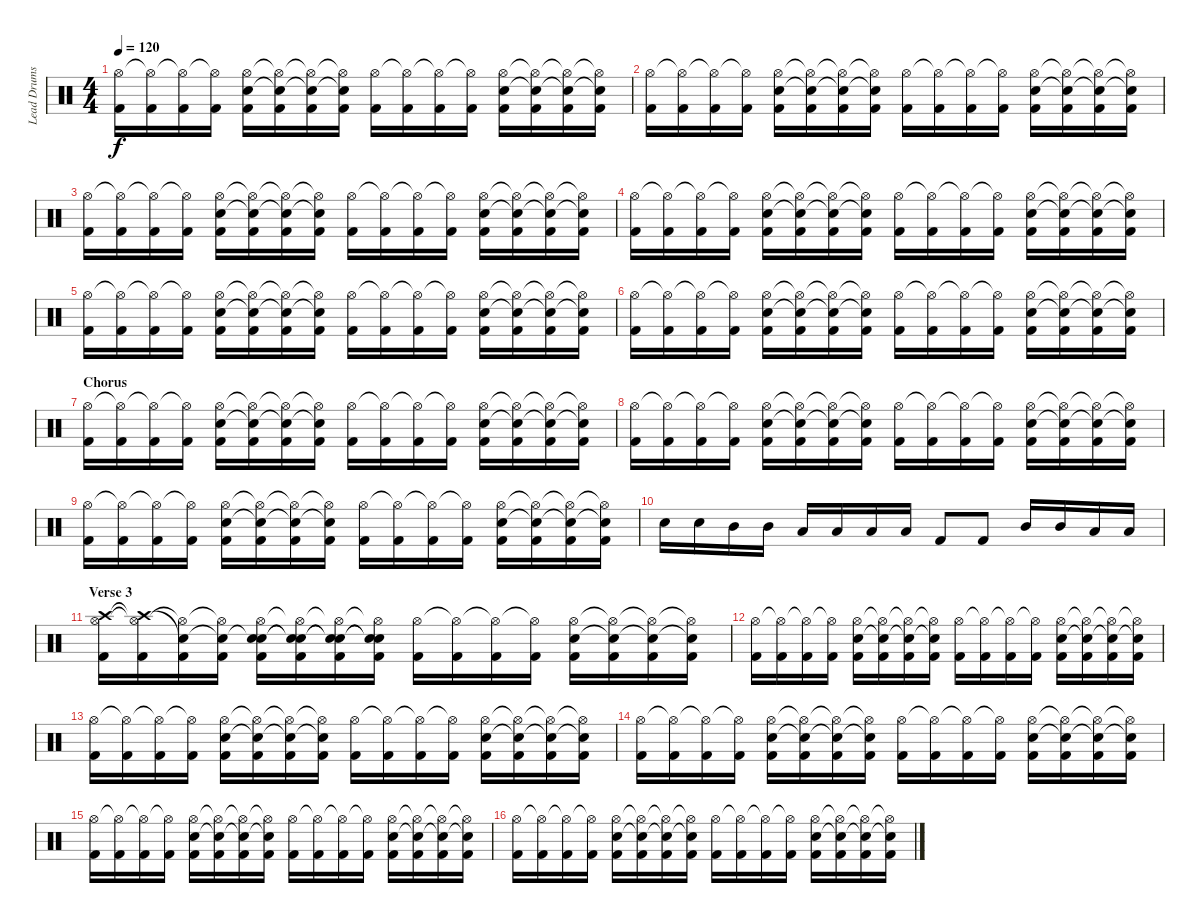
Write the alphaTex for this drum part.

\track ("Lead Drums" "Lead Drums") {instrument percussion}
\staff {score}
\articulation defaults
\ts (4 4)
\tempo 120
\clef neutral
\ks c
("Hi-Hat (open)" "Kick (hit) 2").16{dy f} ("Hi-Hat (open)"{t} "Kick (hit) 2").16 ("Hi-Hat (open)"{t} "Kick (hit) 2").16 ("Hi-Hat (open)"{t} "Kick (hit) 2").16 ("Hi-Hat (open)" "Snare (hit) 2" "Kick (hit) 2").16 ("Hi-Hat (open)"{t} "Snare (hit)"{t} "Kick (hit) 2").16 ("Hi-Hat (open)"{t} "Snare (hit)"{t} "Kick (hit) 2").16 ("Hi-Hat (open)"{t} "Snare (hit)"{t} "Kick (hit) 2").16 ("Hi-Hat (open)" "Kick (hit) 2").16 ("Hi-Hat (open)"{t} "Kick (hit) 2").16 ("Hi-Hat (open)"{t} "Kick (hit) 2").16 ("Hi-Hat (open)"{t} "Kick (hit) 2").16 ("Hi-Hat (open)" "Snare (hit) 2" "Kick (hit) 2").16 ("Hi-Hat (open)"{t} "Snare (hit)"{t} "Kick (hit) 2").16 ("Hi-Hat (open)"{t} "Snare (hit)"{t} "Kick (hit) 2").16 ("Hi-Hat (open)"{t} "Snare (hit)"{t} "Kick (hit) 2").16 |
("Hi-Hat (open)" "Kick (hit) 2").16 ("Hi-Hat (open)"{t} "Kick (hit) 2").16 ("Hi-Hat (open)"{t} "Kick (hit) 2").16 ("Hi-Hat (open)"{t} "Kick (hit) 2").16 ("Hi-Hat (open)" "Snare (hit) 2" "Kick (hit) 2").16 ("Hi-Hat (open)"{t} "Snare (hit)"{t} "Kick (hit) 2").16 ("Hi-Hat (open)"{t} "Snare (hit)"{t} "Kick (hit) 2").16 ("Hi-Hat (open)"{t} "Snare (hit)"{t} "Kick (hit) 2").16 ("Hi-Hat (open)" "Kick (hit) 2").16 ("Hi-Hat (open)"{t} "Kick (hit) 2").16 ("Hi-Hat (open)"{t} "Kick (hit) 2").16 ("Hi-Hat (open)"{t} "Kick (hit) 2").16 ("Hi-Hat (open)" "Snare (hit) 2" "Kick (hit) 2").16 ("Hi-Hat (open)"{t} "Snare (hit)"{t} "Kick (hit) 2").16 ("Hi-Hat (open)"{t} "Snare (hit)"{t} "Kick (hit) 2").16 ("Hi-Hat (open)"{t} "Snare (hit)"{t} "Kick (hit) 2").16 |
("Hi-Hat (open)" "Kick (hit) 2").16 ("Hi-Hat (open)"{t} "Kick (hit) 2").16 ("Hi-Hat (open)"{t} "Kick (hit) 2").16 ("Hi-Hat (open)"{t} "Kick (hit) 2").16 ("Hi-Hat (open)" "Snare (hit) 2" "Kick (hit) 2").16 ("Hi-Hat (open)"{t} "Snare (hit)"{t} "Kick (hit) 2").16 ("Hi-Hat (open)"{t} "Snare (hit)"{t} "Kick (hit) 2").16 ("Hi-Hat (open)"{t} "Snare (hit)"{t} "Kick (hit) 2").16 ("Hi-Hat (open)" "Kick (hit) 2").16 ("Hi-Hat (open)"{t} "Kick (hit) 2").16 ("Hi-Hat (open)"{t} "Kick (hit) 2").16 ("Hi-Hat (open)"{t} "Kick (hit) 2").16 ("Hi-Hat (open)" "Snare (hit) 2" "Kick (hit) 2").16 ("Hi-Hat (open)"{t} "Snare (hit)"{t} "Kick (hit) 2").16 ("Hi-Hat (open)"{t} "Snare (hit)"{t} "Kick (hit) 2").16 ("Hi-Hat (open)"{t} "Snare (hit)"{t} "Kick (hit) 2").16 |
("Hi-Hat (open)" "Kick (hit) 2").16 ("Hi-Hat (open)"{t} "Kick (hit) 2").16 ("Hi-Hat (open)"{t} "Kick (hit) 2").16 ("Hi-Hat (open)"{t} "Kick (hit) 2").16 ("Hi-Hat (open)" "Snare (hit) 2" "Kick (hit) 2").16 ("Hi-Hat (open)"{t} "Snare (hit)"{t} "Kick (hit) 2").16 ("Hi-Hat (open)"{t} "Snare (hit)"{t} "Kick (hit) 2").16 ("Hi-Hat (open)"{t} "Snare (hit)"{t} "Kick (hit) 2").16 ("Hi-Hat (open)" "Kick (hit) 2").16 ("Hi-Hat (open)"{t} "Kick (hit) 2").16 ("Hi-Hat (open)"{t} "Kick (hit) 2").16 ("Hi-Hat (open)"{t} "Kick (hit) 2").16 ("Hi-Hat (open)" "Snare (hit) 2" "Kick (hit) 2").16 ("Hi-Hat (open)"{t} "Snare (hit)"{t} "Kick (hit) 2").16 ("Hi-Hat (open)"{t} "Snare (hit)"{t} "Kick (hit) 2").16 ("Hi-Hat (open)"{t} "Snare (hit)"{t} "Kick (hit) 2").16 |
("Hi-Hat (open)" "Kick (hit) 2").16 ("Hi-Hat (open)"{t} "Kick (hit) 2").16 ("Hi-Hat (open)"{t} "Kick (hit) 2").16 ("Hi-Hat (open)"{t} "Kick (hit) 2").16 ("Hi-Hat (open)" "Snare (hit) 2" "Kick (hit) 2").16 ("Hi-Hat (open)"{t} "Snare (hit)"{t} "Kick (hit) 2").16 ("Hi-Hat (open)"{t} "Snare (hit)"{t} "Kick (hit) 2").16 ("Hi-Hat (open)"{t} "Snare (hit)"{t} "Kick (hit) 2").16 ("Hi-Hat (open)" "Kick (hit) 2").16 ("Hi-Hat (open)"{t} "Kick (hit) 2").16 ("Hi-Hat (open)"{t} "Kick (hit) 2").16 ("Hi-Hat (open)"{t} "Kick (hit) 2").16 ("Hi-Hat (open)" "Snare (hit) 2" "Kick (hit) 2").16 ("Hi-Hat (open)"{t} "Snare (hit)"{t} "Kick (hit) 2").16 ("Hi-Hat (open)"{t} "Snare (hit)"{t} "Kick (hit) 2").16 ("Hi-Hat (open)"{t} "Snare (hit)"{t} "Kick (hit) 2").16 |
("Hi-Hat (open)" "Kick (hit) 2").16 ("Hi-Hat (open)"{t} "Kick (hit) 2").16 ("Hi-Hat (open)"{t} "Kick (hit) 2").16 ("Hi-Hat (open)"{t} "Kick (hit) 2").16 ("Hi-Hat (open)" "Snare (hit) 2" "Kick (hit) 2").16 ("Hi-Hat (open)"{t} "Snare (hit)"{t} "Kick (hit) 2").16 ("Hi-Hat (open)"{t} "Snare (hit)"{t} "Kick (hit) 2").16 ("Hi-Hat (open)"{t} "Snare (hit)"{t} "Kick (hit) 2").16 ("Hi-Hat (open)" "Kick (hit) 2").16 ("Hi-Hat (open)"{t} "Kick (hit) 2").16 ("Hi-Hat (open)"{t} "Kick (hit) 2").16 ("Hi-Hat (open)"{t} "Kick (hit) 2").16 ("Hi-Hat (open)" "Snare (hit) 2" "Kick (hit) 2").16 ("Hi-Hat (open)"{t} "Snare (hit)"{t} "Kick (hit) 2").16 ("Hi-Hat (open)"{t} "Snare (hit)"{t} "Kick (hit) 2").16 ("Hi-Hat (open)"{t} "Snare (hit)"{t} "Kick (hit) 2").16 |
\section ("" "Chorus")
("Hi-Hat (open)" "Kick (hit) 2").16 ("Hi-Hat (open)"{t} "Kick (hit) 2").16 ("Hi-Hat (open)"{t} "Kick (hit) 2").16 ("Hi-Hat (open)"{t} "Kick (hit) 2").16 ("Hi-Hat (open)" "Snare (hit) 2" "Kick (hit) 2").16 ("Hi-Hat (open)"{t} "Snare (hit)"{t} "Kick (hit) 2").16 ("Hi-Hat (open)"{t} "Snare (hit)"{t} "Kick (hit) 2").16 ("Hi-Hat (open)"{t} "Snare (hit)"{t} "Kick (hit) 2").16 ("Hi-Hat (open)" "Kick (hit) 2").16 ("Hi-Hat (open)"{t} "Kick (hit) 2").16 ("Hi-Hat (open)"{t} "Kick (hit) 2").16 ("Hi-Hat (open)"{t} "Kick (hit) 2").16 ("Hi-Hat (open)" "Snare (hit) 2" "Kick (hit) 2").16 ("Hi-Hat (open)"{t} "Snare (hit)"{t} "Kick (hit) 2").16 ("Hi-Hat (open)"{t} "Snare (hit)"{t} "Kick (hit) 2").16 ("Hi-Hat (open)"{t} "Snare (hit)"{t} "Kick (hit) 2").16 |
("Hi-Hat (open)" "Kick (hit) 2").16 ("Hi-Hat (open)"{t} "Kick (hit) 2").16 ("Hi-Hat (open)"{t} "Kick (hit) 2").16 ("Hi-Hat (open)"{t} "Kick (hit) 2").16 ("Hi-Hat (open)" "Snare (hit) 2" "Kick (hit) 2").16 ("Hi-Hat (open)"{t} "Snare (hit)"{t} "Kick (hit) 2").16 ("Hi-Hat (open)"{t} "Snare (hit)"{t} "Kick (hit) 2").16 ("Hi-Hat (open)"{t} "Snare (hit)"{t} "Kick (hit) 2").16 ("Hi-Hat (open)" "Kick (hit) 2").16 ("Hi-Hat (open)"{t} "Kick (hit) 2").16 ("Hi-Hat (open)"{t} "Kick (hit) 2").16 ("Hi-Hat (open)"{t} "Kick (hit) 2").16 ("Hi-Hat (open)" "Snare (hit) 2" "Kick (hit) 2").16 ("Hi-Hat (open)"{t} "Snare (hit)"{t} "Kick (hit) 2").16 ("Hi-Hat (open)"{t} "Snare (hit)"{t} "Kick (hit) 2").16 ("Hi-Hat (open)"{t} "Snare (hit)"{t} "Kick (hit) 2").16 |
("Hi-Hat (open)" "Kick (hit) 2").16 ("Hi-Hat (open)"{t} "Kick (hit) 2").16 ("Hi-Hat (open)"{t} "Kick (hit) 2").16 ("Hi-Hat (open)"{t} "Kick (hit) 2").16 ("Hi-Hat (open)" "Snare (hit) 2" "Kick (hit) 2").16 ("Hi-Hat (open)"{t} "Snare (hit)"{t} "Kick (hit) 2").16 ("Hi-Hat (open)"{t} "Snare (hit)"{t} "Kick (hit) 2").16 ("Hi-Hat (open)"{t} "Snare (hit)"{t} "Kick (hit) 2").16 ("Hi-Hat (open)" "Kick (hit) 2").16 ("Hi-Hat (open)"{t} "Kick (hit) 2").16 ("Hi-Hat (open)"{t} "Kick (hit) 2").16 ("Hi-Hat (open)"{t} "Kick (hit) 2").16 ("Hi-Hat (open)" "Snare (hit) 2" "Kick (hit) 2").16 ("Hi-Hat (open)"{t} "Snare (hit)"{t} "Kick (hit) 2").16 ("Hi-Hat (open)"{t} "Snare (hit)"{t} "Kick (hit) 2").16 ("Hi-Hat (open)"{t} "Snare (hit)"{t} "Kick (hit) 2").16 |
"Snare (hit) 2".16 "Snare (hit) 2".16 "Mid Tom (hit)".16 "Mid Tom (hit)".16 "Low Tom (hit)".16 "Low Tom (hit)".16 "Low Tom (hit)".16 "Low Tom (hit)".16 "Kick (hit) 2".8 "Kick (hit) 2".8 "Mid Tom (hit)".16 "Mid Tom (hit)".16 "Low Tom (hit)".16 "Low Tom (hit)".16 |
\section ("" "Verse 3")
("Hi-Hat (open)" "Crash high (hit)" "Kick (hit) 2").16 ("Hi-Hat (open)"{t} "Crash high (hit)"{t} "Kick (hit) 2").16 ("Hi-Hat (open)"{t} "Snare (hit)"{t} "Kick (hit) 2").16 ("Hi-Hat (open)"{t} "Snare (hit)"{t} "Kick (hit) 2").16 ("Hi-Hat (open)" "Snare (hit)"{t} "Snare (hit) 2" "Kick (hit) 2").16 ("Hi-Hat (open)"{t} "Snare (hit)"{t} "Snare (hit)"{t} "Kick (hit) 2").16 ("Hi-Hat (open)"{t} "Snare (hit)"{t} "Snare (hit)"{t} "Kick (hit) 2").16 ("Hi-Hat (open)"{t} "Snare (hit)"{t} "Snare (hit)"{t} "Kick (hit) 2").16 ("Hi-Hat (open)" "Kick (hit) 2").16 ("Hi-Hat (open)"{t} "Kick (hit) 2").16 ("Hi-Hat (open)"{t} "Kick (hit) 2").16 ("Hi-Hat (open)"{t} "Kick (hit) 2").16 ("Hi-Hat (open)" "Snare (hit) 2" "Kick (hit) 2").16 ("Hi-Hat (open)"{t} "Snare (hit)"{t} "Kick (hit) 2").16 ("Hi-Hat (open)"{t} "Snare (hit)"{t} "Kick (hit) 2").16 ("Hi-Hat (open)"{t} "Snare (hit)"{t} "Kick (hit) 2").16 |
("Hi-Hat (open)" "Kick (hit) 2").16 ("Hi-Hat (open)"{t} "Kick (hit) 2").16 ("Hi-Hat (open)"{t} "Kick (hit) 2").16 ("Hi-Hat (open)"{t} "Kick (hit) 2").16 ("Hi-Hat (open)" "Snare (hit) 2" "Kick (hit) 2").16 ("Hi-Hat (open)"{t} "Snare (hit)"{t} "Kick (hit) 2").16 ("Hi-Hat (open)"{t} "Snare (hit)"{t} "Kick (hit) 2").16 ("Hi-Hat (open)"{t} "Snare (hit)"{t} "Kick (hit) 2").16 ("Hi-Hat (open)" "Kick (hit) 2").16 ("Hi-Hat (open)"{t} "Kick (hit) 2").16 ("Hi-Hat (open)"{t} "Kick (hit) 2").16 ("Hi-Hat (open)"{t} "Kick (hit) 2").16 ("Hi-Hat (open)" "Snare (hit) 2" "Kick (hit) 2").16 ("Hi-Hat (open)"{t} "Snare (hit)"{t} "Kick (hit) 2").16 ("Hi-Hat (open)"{t} "Snare (hit)"{t} "Kick (hit) 2").16 ("Hi-Hat (open)"{t} "Snare (hit)"{t} "Kick (hit) 2").16 |
("Hi-Hat (open)" "Kick (hit) 2").16 ("Hi-Hat (open)"{t} "Kick (hit) 2").16 ("Hi-Hat (open)"{t} "Kick (hit) 2").16 ("Hi-Hat (open)"{t} "Kick (hit) 2").16 ("Hi-Hat (open)" "Snare (hit) 2" "Kick (hit) 2").16 ("Hi-Hat (open)"{t} "Snare (hit)"{t} "Kick (hit) 2").16 ("Hi-Hat (open)"{t} "Snare (hit)"{t} "Kick (hit) 2").16 ("Hi-Hat (open)"{t} "Snare (hit)"{t} "Kick (hit) 2").16 ("Hi-Hat (open)" "Kick (hit) 2").16 ("Hi-Hat (open)"{t} "Kick (hit) 2").16 ("Hi-Hat (open)"{t} "Kick (hit) 2").16 ("Hi-Hat (open)"{t} "Kick (hit) 2").16 ("Hi-Hat (open)" "Snare (hit) 2" "Kick (hit) 2").16 ("Hi-Hat (open)"{t} "Snare (hit)"{t} "Kick (hit) 2").16 ("Hi-Hat (open)"{t} "Snare (hit)"{t} "Kick (hit) 2").16 ("Hi-Hat (open)"{t} "Snare (hit)"{t} "Kick (hit) 2").16 |
("Hi-Hat (open)" "Kick (hit) 2").16 ("Hi-Hat (open)"{t} "Kick (hit) 2").16 ("Hi-Hat (open)"{t} "Kick (hit) 2").16 ("Hi-Hat (open)"{t} "Kick (hit) 2").16 ("Hi-Hat (open)" "Snare (hit) 2" "Kick (hit) 2").16 ("Hi-Hat (open)"{t} "Snare (hit)"{t} "Kick (hit) 2").16 ("Hi-Hat (open)"{t} "Snare (hit)"{t} "Kick (hit) 2").16 ("Hi-Hat (open)"{t} "Snare (hit)"{t} "Kick (hit) 2").16 ("Hi-Hat (open)" "Kick (hit) 2").16 ("Hi-Hat (open)"{t} "Kick (hit) 2").16 ("Hi-Hat (open)"{t} "Kick (hit) 2").16 ("Hi-Hat (open)"{t} "Kick (hit) 2").16 ("Hi-Hat (open)" "Snare (hit) 2" "Kick (hit) 2").16 ("Hi-Hat (open)"{t} "Snare (hit)"{t} "Kick (hit) 2").16 ("Hi-Hat (open)"{t} "Snare (hit)"{t} "Kick (hit) 2").16 ("Hi-Hat (open)"{t} "Snare (hit)"{t} "Kick (hit) 2").16 |
("Hi-Hat (open)" "Kick (hit) 2").16 ("Hi-Hat (open)"{t} "Kick (hit) 2").16 ("Hi-Hat (open)"{t} "Kick (hit) 2").16 ("Hi-Hat (open)"{t} "Kick (hit) 2").16 ("Hi-Hat (open)" "Snare (hit) 2" "Kick (hit) 2").16 ("Hi-Hat (open)"{t} "Snare (hit)"{t} "Kick (hit) 2").16 ("Hi-Hat (open)"{t} "Snare (hit)"{t} "Kick (hit) 2").16 ("Hi-Hat (open)"{t} "Snare (hit)"{t} "Kick (hit) 2").16 ("Hi-Hat (open)" "Kick (hit) 2").16 ("Hi-Hat (open)"{t} "Kick (hit) 2").16 ("Hi-Hat (open)"{t} "Kick (hit) 2").16 ("Hi-Hat (open)"{t} "Kick (hit) 2").16 ("Hi-Hat (open)" "Snare (hit) 2" "Kick (hit) 2").16 ("Hi-Hat (open)"{t} "Snare (hit)"{t} "Kick (hit) 2").16 ("Hi-Hat (open)"{t} "Snare (hit)"{t} "Kick (hit) 2").16 ("Hi-Hat (open)"{t} "Snare (hit)"{t} "Kick (hit) 2").16 |
("Hi-Hat (open)" "Kick (hit) 2").16 ("Hi-Hat (open)"{t} "Kick (hit) 2").16 ("Hi-Hat (open)"{t} "Kick (hit) 2").16 ("Hi-Hat (open)"{t} "Kick (hit) 2").16 ("Hi-Hat (open)" "Snare (hit) 2" "Kick (hit) 2").16 ("Hi-Hat (open)"{t} "Snare (hit)"{t} "Kick (hit) 2").16 ("Hi-Hat (open)"{t} "Snare (hit)"{t} "Kick (hit) 2").16 ("Hi-Hat (open)"{t} "Snare (hit)"{t} "Kick (hit) 2").16 ("Hi-Hat (open)" "Kick (hit) 2").16 ("Hi-Hat (open)"{t} "Kick (hit) 2").16 ("Hi-Hat (open)"{t} "Kick (hit) 2").16 ("Hi-Hat (open)"{t} "Kick (hit) 2").16 ("Hi-Hat (open)" "Snare (hit) 2" "Kick (hit) 2").16 ("Hi-Hat (open)"{t} "Snare (hit)"{t} "Kick (hit) 2").16 ("Hi-Hat (open)"{t} "Snare (hit)"{t} "Kick (hit) 2").16 ("Hi-Hat (open)"{t} "Snare (hit)"{t} "Kick (hit) 2").16
